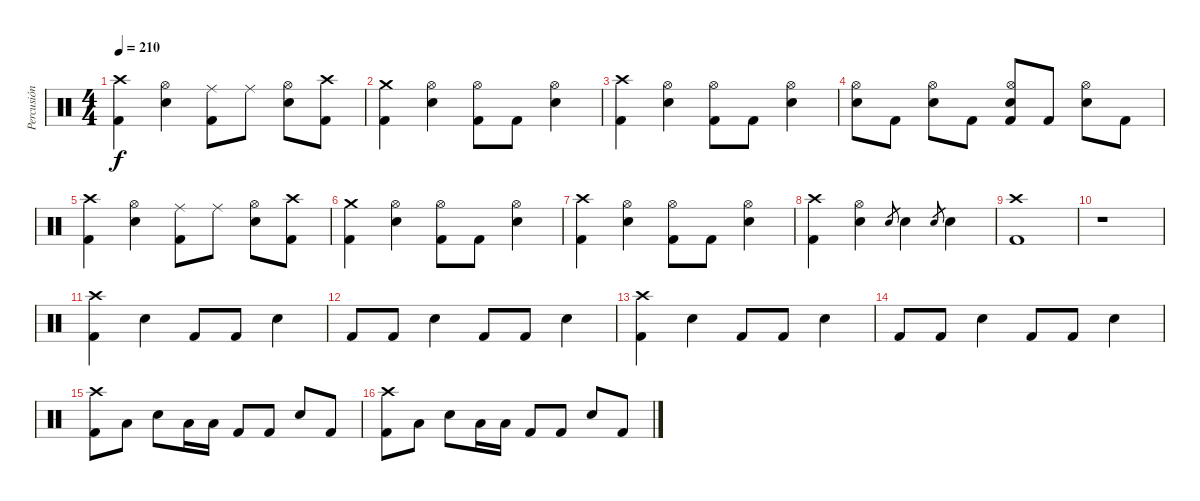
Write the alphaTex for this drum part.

\track ("Percusión" "Percusión") {instrument percussion}
\staff {score}
\articulation defaults
\ts (4 4)
\tempo 210
\clef neutral
\ks c
("Crash high (hit)" "Kick (hit) 2").4{dy f} ("Hi-Hat (open)" "Electric Snare (hit)").4 ("Ride (middle)" "Kick (hit) 2").8 "Ride (middle)".8 ("Hi-Hat (open)" "Electric Snare (hit)").8 ("Crash high (hit)" "Kick (hit) 2").8 |
("Crash medium (hit)" "Kick (hit) 2").4 ("Hi-Hat (open)" "Electric Snare (hit)").4 ("Hi-Hat (open)" "Kick (hit) 2").8 "Kick (hit) 2".8 ("Hi-Hat (open)" "Electric Snare (hit)").4 |
("Crash high (hit)" "Kick (hit) 2").4 ("Hi-Hat (open)" "Electric Snare (hit)").4 ("Hi-Hat (open)" "Kick (hit) 2").8 "Kick (hit) 2".8 ("Hi-Hat (open)" "Electric Snare (hit)").4 |
("Hi-Hat (open)" "Electric Snare (hit)").8 "Kick (hit) 2".8 ("Hi-Hat (open)" "Electric Snare (hit)").8 "Kick (hit) 2".8 ("Hi-Hat (open)" "Electric Snare (hit)" "Kick (hit) 2").8 "Kick (hit) 2".8 ("Hi-Hat (open)" "Electric Snare (hit)").8 "Kick (hit) 2".8 |
("Crash high (hit)" "Kick (hit) 2").4 ("Hi-Hat (open)" "Electric Snare (hit)").4 ("Ride (middle)" "Kick (hit) 2").8 "Ride (middle)".8 ("Hi-Hat (open)" "Electric Snare (hit)").8 ("Crash high (hit)" "Kick (hit) 2").8 |
("Crash medium (hit)" "Kick (hit) 2").4 ("Hi-Hat (open)" "Electric Snare (hit)").4 ("Hi-Hat (open)" "Kick (hit) 2").8 "Kick (hit) 2".8 ("Hi-Hat (open)" "Electric Snare (hit)").4 |
("Crash high (hit)" "Kick (hit) 2").4 ("Hi-Hat (open)" "Electric Snare (hit)").4 ("Hi-Hat (open)" "Kick (hit) 2").8 "Kick (hit) 2".8 ("Hi-Hat (open)" "Electric Snare (hit)").4 |
("Crash high (hit)" "Kick (hit) 2").4 ("Hi-Hat (open)" "Electric Snare (hit)").4 "Electric Snare (hit)".8{gr} "Electric Snare (hit)".4 "Electric Snare (hit)".8{gr} "Electric Snare (hit)".4 |
("Crash high (hit)" "Kick (hit) 2").1 |
r.1 |
("Crash high (hit)" "Kick (hit) 2").4 "Electric Snare (hit)".4 "Kick (hit) 2".8 "Kick (hit) 2".8 "Electric Snare (hit)".4 |
"Kick (hit) 2".8 "Kick (hit) 2".8 "Electric Snare (hit)".4 "Kick (hit) 2".8 "Kick (hit) 2".8 "Electric Snare (hit)".4 |
("Crash high (hit)" "Kick (hit) 2").4 "Electric Snare (hit)".4 "Kick (hit) 2".8 "Kick (hit) 2".8 "Electric Snare (hit)".4 |
"Kick (hit) 2".8 "Kick (hit) 2".8 "Electric Snare (hit)".4 "Kick (hit) 2".8 "Kick (hit) 2".8 "Electric Snare (hit)".4 |
("Crash high (hit)" "Kick (hit) 2").8 "Low Floor Tom (hit)".8 "Electric Snare (hit)".8 "Low Tom (hit)".16 "Low Tom (hit)".16 "Kick (hit) 2".8 "Kick (hit) 2".8 "Electric Snare (hit)".8 "Kick (hit) 2".8 |
("Crash high (hit)" "Kick (hit) 2").8 "Low Floor Tom (hit)".8 "Electric Snare (hit)".8 "Low Tom (hit)".16 "Low Tom (hit)".16 "Kick (hit) 2".8 "Kick (hit) 2".8 "Electric Snare (hit)".8 "Kick (hit) 2".8
